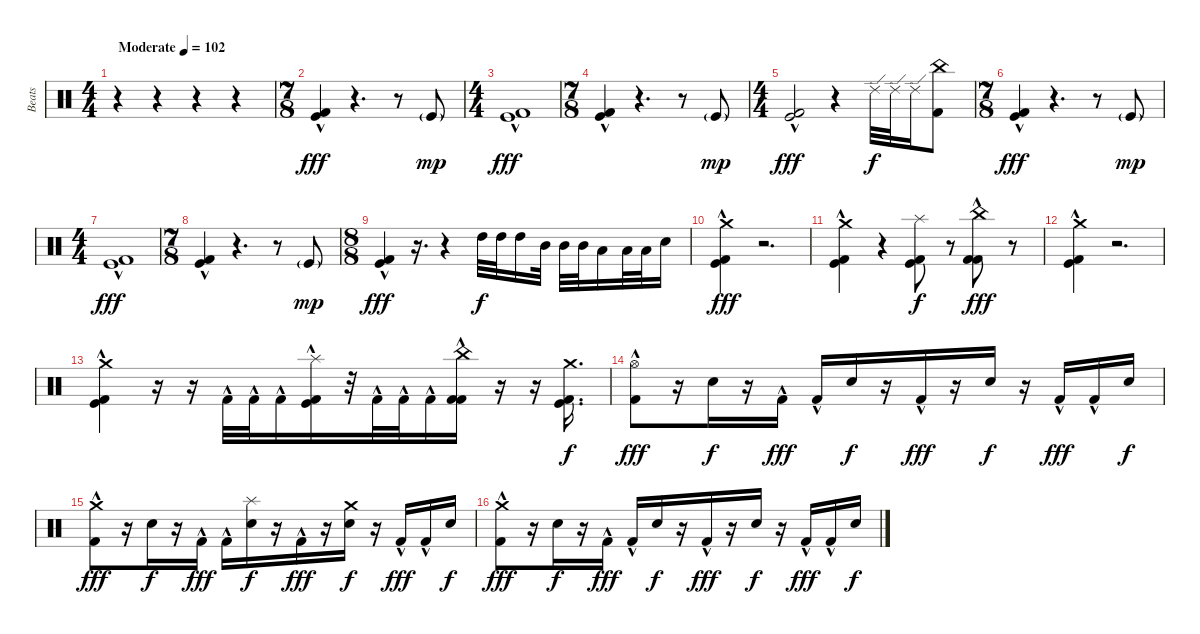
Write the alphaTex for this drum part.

\track ("Beats" "Beats") {instrument percussion}
\staff {score}
\articulation defaults
\ts (4 4)
\tempo (102 "Moderate")
\clef neutral
\ks c
r.4{dy fff} r.4 r.4 r.4 |
\ts (7 8)
("Kick (hit)"{hac} "Kick (hit) 2"{hac}).4 r.4{d} r.8 "Kick (hit)"{g}.8{dy mp} |
\ts (4 4)
("Kick (hit)"{hac} "Kick (hit) 2"{hac}).1{dy fff} |
\ts (7 8)
("Kick (hit)"{hac} "Kick (hit) 2"{hac}).4 r.4{d} r.8 "Kick (hit)"{g}.8{dy mp} |
\ts (4 4)
("Kick (hit)"{hac} "Kick (hit) 2"{hac}).2{dy fff} r.4 "Ride (edge) 2".32{dy f} "Ride (edge) 2".32 "Ride (edge) 2".16 ("China (hit)" "Kick (hit) 2").8 |
\ts (7 8)
("Kick (hit)"{hac} "Kick (hit) 2"{hac}).4{dy fff} r.4{d} r.8 "Kick (hit)"{g}.8{dy mp} |
\ts (4 4)
("Kick (hit)"{hac} "Kick (hit) 2"{hac}).1{dy fff} |
\ts (7 8)
("Kick (hit)"{hac} "Kick (hit) 2"{hac}).4 r.4{d} r.8 "Kick (hit)"{g}.8{dy mp} |
\ts (8 8)
("Kick (hit) 2"{hac} "Kick (hit)"{hac}).4{dy fff} r.16{d} r.4 "High Tom (hit)".32{dy f} "High Tom (hit)".32 "High Tom (hit)".16 "Mid Tom (hit)".32 "Mid Tom (hit)".32 "Mid Tom (hit)".32 "Low Tom (hit)".16 "Low Tom (hit)".32 "Low Tom (hit)".32 "Snare (hit) 2".16 |
("Crash medium (hit)"{hac} "Kick (hit) 2"{hac} "Kick (hit)"{hac}).4{dy fff} r.2{d} |
("Kick (hit) 2"{hac} "Kick (hit)"{hac} "Crash medium (hit)"{hac}).4 r.4 ("Splash (hit)" "Kick (hit)" "Kick (hit) 2").8{dy f} r.8 ("China (hit)" "Kick (hit) 2"{hac} "Kick (hit) 2"{hac}).8{dy fff} r.8 |
("Crash medium (hit)"{hac} "Kick (hit) 2" "Kick (hit)").4 r.2{d} |
("Kick (hit) 2"{hac} "Kick (hit)"{hac} "Crash medium (hit)"{hac}).4 r.16 r.16 "Kick (hit) 2"{hac}.32 "Kick (hit) 2"{hac}.32 "Kick (hit) 2"{hac}.16 ("Splash (hit)" "Kick (hit)" "Kick (hit) 2"{hac}).16 r.32 "Kick (hit) 2"{hac}.32 "Kick (hit) 2"{hac}.32 "Kick (hit) 2"{hac}.16 ("China (hit)" "Kick (hit) 2" "Kick (hit) 2"{hac}).16 r.16 r.16 ("Crash medium (hit)" "Kick (hit) 2" "Kick (hit)").16{d dy f} |
("Hi-Hat (open)" "Kick (hit) 2"{hac}).8{dy fff} r.16 "Snare (hit) 2".16{dy f} r.16 "Kick (hit) 2"{hac}.16{dy fff} "Kick (hit) 2"{hac}.16 "Snare (hit) 2".16{dy f} r.16 "Kick (hit) 2"{hac}.16{dy fff} r.16 "Snare (hit) 2".16{dy f} r.16 "Kick (hit) 2"{hac}.16{dy fff} "Kick (hit) 2"{hac}.16 "Snare (hit) 2".16{dy f} |
("Crash medium (hit)" "Kick (hit) 2"{hac}).8{dy fff} r.16 "Snare (hit) 2".16{dy f} r.16 "Kick (hit) 2"{hac}.16{dy fff} "Kick (hit) 2"{hac}.16 ("Splash (hit)" "Snare (hit) 2").16{dy f} r.16 "Kick (hit) 2"{hac}.16{dy fff} r.16 ("Crash medium (hit)" "Snare (hit) 2").16{dy f} r.16 "Kick (hit) 2"{hac}.16{dy fff} "Kick (hit) 2"{hac}.16 "Snare (hit) 2".16{dy f} |
("Crash medium (hit)" "Kick (hit) 2"{hac}).8{dy fff} r.16 "Snare (hit) 2".16{dy f} r.16 "Kick (hit) 2"{hac}.16{dy fff} "Kick (hit) 2"{hac}.16 "Snare (hit) 2".16{dy f} r.16 "Kick (hit) 2"{hac}.16{dy fff} r.16 "Snare (hit) 2".16{dy f} r.16 "Kick (hit) 2"{hac}.16{dy fff} "Kick (hit) 2"{hac}.16 "Snare (hit) 2".16{dy f}
